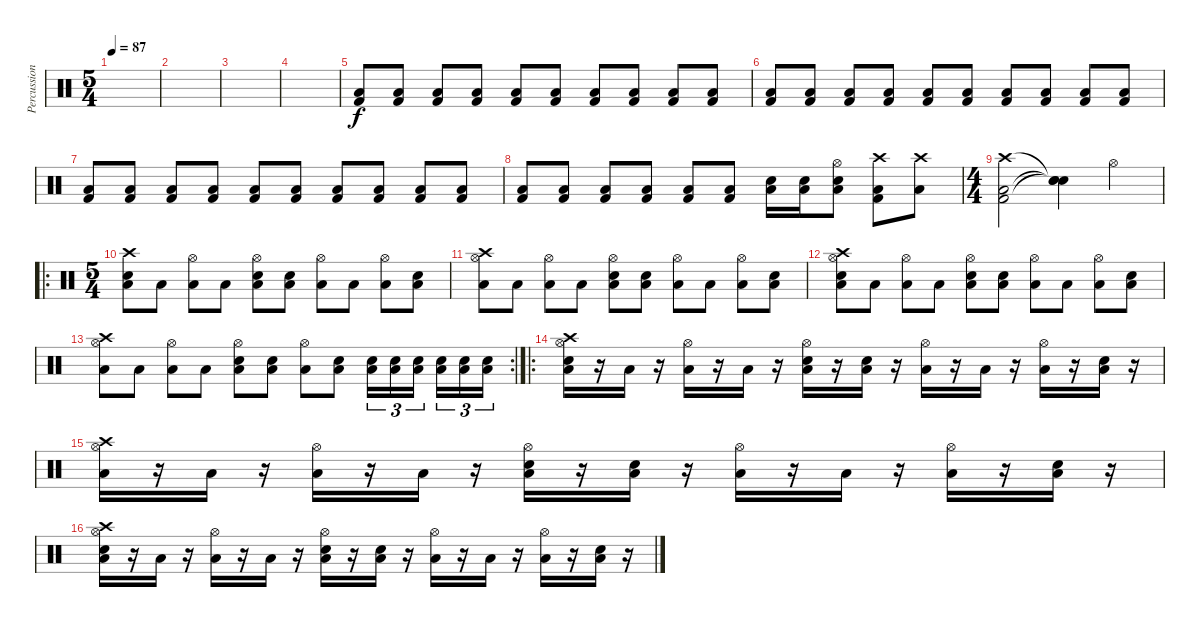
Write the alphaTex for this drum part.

\track ("Percussion" "Percussion") {instrument percussion}
\staff {score}
\articulation defaults
\ts (5 4)
\tempo 87
\clef neutral
\ks c
|
|
|
|
("Low Floor Tom (hit)" "Kick (hit) 2").8 ("Low Floor Tom (hit)" "Kick (hit) 2").8 ("Low Floor Tom (hit)" "Kick (hit) 2").8 ("Low Floor Tom (hit)" "Kick (hit) 2").8 ("Low Floor Tom (hit)" "Kick (hit) 2").8 ("Low Floor Tom (hit)" "Kick (hit) 2").8 ("Low Floor Tom (hit)" "Kick (hit) 2").8 ("Low Floor Tom (hit)" "Kick (hit) 2").8 ("Low Floor Tom (hit)" "Kick (hit) 2").8 ("Low Floor Tom (hit)" "Kick (hit) 2").8 |
("Low Floor Tom (hit)" "Kick (hit) 2").8 ("Low Floor Tom (hit)" "Kick (hit) 2").8 ("Low Floor Tom (hit)" "Kick (hit) 2").8 ("Low Floor Tom (hit)" "Kick (hit) 2").8 ("Low Floor Tom (hit)" "Kick (hit) 2").8 ("Low Floor Tom (hit)" "Kick (hit) 2").8 ("Low Floor Tom (hit)" "Kick (hit) 2").8 ("Low Floor Tom (hit)" "Kick (hit) 2").8 ("Low Floor Tom (hit)" "Kick (hit) 2").8 ("Low Floor Tom (hit)" "Kick (hit) 2").8 |
("Low Floor Tom (hit)" "Kick (hit) 2").8 ("Low Floor Tom (hit)" "Kick (hit) 2").8 ("Low Floor Tom (hit)" "Kick (hit) 2").8 ("Low Floor Tom (hit)" "Kick (hit) 2").8 ("Low Floor Tom (hit)" "Kick (hit) 2").8 ("Low Floor Tom (hit)" "Kick (hit) 2").8 ("Low Floor Tom (hit)" "Kick (hit) 2").8 ("Low Floor Tom (hit)" "Kick (hit) 2").8 ("Low Floor Tom (hit)" "Kick (hit) 2").8 ("Low Floor Tom (hit)" "Kick (hit) 2").8 |
("Low Floor Tom (hit)" "Kick (hit) 2").8 ("Low Floor Tom (hit)" "Kick (hit) 2").8 ("Low Floor Tom (hit)" "Kick (hit) 2").8 ("Low Floor Tom (hit)" "Kick (hit) 2").8 ("Low Floor Tom (hit)" "Kick (hit) 2").8 ("Low Floor Tom (hit)" "Kick (hit) 2").8 ("Low Floor Tom (hit)" "Electric Snare (hit)").16 ("Low Floor Tom (hit)" "Electric Snare (hit)").16 ("Hi-Hat (open)" "Low Floor Tom (hit)" "Electric Snare (hit)").8 ("Crash high (hit)" "Low Floor Tom (hit)" "Kick (hit) 2").8 ("Crash high (hit)" "Low Floor Tom (hit)").8 |
\ts (4 4)
("Kick (hit) 2" "Crash high (hit)" "Low Floor Tom (hit)").2 ("Snare (hit)"{t} "Snare (hit)"{t} "Snare (hit)"{t}).4 "Hi-Hat (open)".4 |
\ro
\ts (5 4)
("Crash high (hit)" "Electric Snare (hit)" "Low Tom (hit)").8 "Low Tom (hit)".8 ("Hi-Hat (open)" "Low Tom (hit)").8 "Low Tom (hit)".8 ("Hi-Hat (open)" "Electric Snare (hit)" "Low Tom (hit)").8 ("Electric Snare (hit)" "Low Tom (hit)").8 ("Hi-Hat (open)" "Low Tom (hit)").8 "Low Tom (hit)".8 ("Hi-Hat (open)" "Low Tom (hit)").8 ("Electric Snare (hit)" "Low Tom (hit)").8 |
("Crash high (hit)" "Hi-Hat (open)" "Low Tom (hit)").8 "Low Tom (hit)".8 ("Hi-Hat (open)" "Low Tom (hit)").8 "Low Tom (hit)".8 ("Hi-Hat (open)" "Electric Snare (hit)" "Low Tom (hit)").8 ("Electric Snare (hit)" "Low Tom (hit)").8 ("Hi-Hat (open)" "Low Tom (hit)").8 "Low Tom (hit)".8 ("Hi-Hat (open)" "Low Tom (hit)").8 ("Electric Snare (hit)" "Low Tom (hit)").8 |
("Crash high (hit)" "Hi-Hat (open)" "Electric Snare (hit)" "Low Tom (hit)").8 "Low Tom (hit)".8 ("Hi-Hat (open)" "Low Tom (hit)").8 "Low Tom (hit)".8 ("Hi-Hat (open)" "Electric Snare (hit)" "Low Tom (hit)").8 ("Electric Snare (hit)" "Low Tom (hit)").8 ("Hi-Hat (open)" "Low Tom (hit)").8 "Low Tom (hit)".8 ("Hi-Hat (open)" "Low Tom (hit)").8 ("Electric Snare (hit)" "Low Tom (hit)").8 |
\rc 2
("Crash high (hit)" "Hi-Hat (open)" "Low Tom (hit)").8 "Low Tom (hit)".8 ("Hi-Hat (open)" "Low Tom (hit)").8 "Low Tom (hit)".8 ("Hi-Hat (open)" "Electric Snare (hit)" "Low Tom (hit)").8 ("Electric Snare (hit)" "Low Tom (hit)").8 ("Hi-Hat (open)" "Low Tom (hit)").8 ("Electric Snare (hit)" "Low Tom (hit)").8 ("Electric Snare (hit)" "Low Tom (hit)").16{tu (3 2)} ("Electric Snare (hit)" "Low Tom (hit)").16{tu (3 2)} ("Electric Snare (hit)" "Low Tom (hit)").16{tu (3 2)} ("Electric Snare (hit)" "Low Tom (hit)").16{tu (3 2)} ("Electric Snare (hit)" "Low Tom (hit)").16{tu (3 2)} ("Electric Snare (hit)" "Low Tom (hit)").16{tu (3 2)} |
\ro
("Crash high (hit)" "Hi-Hat (open)" "Electric Snare (hit)" "Low Tom (hit)").16 r.16 "Low Tom (hit)".16 r.16 ("Hi-Hat (open)" "Low Tom (hit)").16 r.16 "Low Tom (hit)".16 r.16 ("Hi-Hat (open)" "Electric Snare (hit)" "Low Tom (hit)").16 r.16 ("Electric Snare (hit)" "Low Tom (hit)").16 r.16 ("Hi-Hat (open)" "Low Tom (hit)").16 r.16 "Low Tom (hit)".16 r.16 ("Hi-Hat (open)" "Low Tom (hit)").16 r.16 ("Electric Snare (hit)" "Low Tom (hit)").16 r.16 |
("Crash high (hit)" "Hi-Hat (open)" "Low Tom (hit)").16 r.16 "Low Tom (hit)".16 r.16 ("Hi-Hat (open)" "Low Tom (hit)").16 r.16 "Low Tom (hit)".16 r.16 ("Hi-Hat (open)" "Electric Snare (hit)" "Low Tom (hit)").16 r.16 ("Electric Snare (hit)" "Low Tom (hit)").16 r.16 ("Hi-Hat (open)" "Low Tom (hit)").16 r.16 "Low Tom (hit)".16 r.16 ("Hi-Hat (open)" "Low Tom (hit)").16 r.16 ("Electric Snare (hit)" "Low Tom (hit)").16 r.16 |
("Crash high (hit)" "Hi-Hat (open)" "Electric Snare (hit)" "Low Tom (hit)").16 r.16 "Low Tom (hit)".16 r.16 ("Hi-Hat (open)" "Low Tom (hit)").16 r.16 "Low Tom (hit)".16 r.16 ("Hi-Hat (open)" "Electric Snare (hit)" "Low Tom (hit)").16 r.16 ("Electric Snare (hit)" "Low Tom (hit)").16 r.16 ("Hi-Hat (open)" "Low Tom (hit)").16 r.16 "Low Tom (hit)".16 r.16 ("Hi-Hat (open)" "Low Tom (hit)").16 r.16 ("Electric Snare (hit)" "Low Tom (hit)").16 r.16
